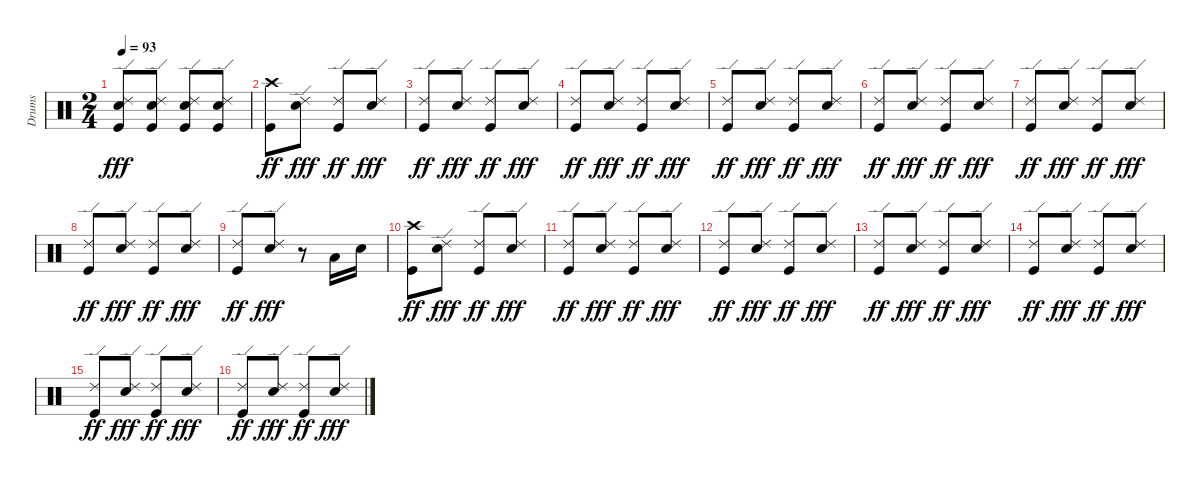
\track ("Drums" "Drums") {instrument percussion}
\staff {score}
\articulation defaults
\ts (2 4)
\tempo 93
\clef neutral
\ks c
("Ride (edge) 2" "Snare (hit) 2" "Kick (hit)").8{dy fff} ("Ride (edge) 2" "Snare (hit) 2" "Kick (hit)").8 ("Ride (edge) 2" "Snare (hit) 2" "Kick (hit)").8 ("Ride (edge) 2" "Snare (hit) 2" "Kick (hit)").8 |
("Crash high (hit)" "Kick (hit)").8{dy ff} ("Ride (edge) 2" "Snare (hit) 2").8{dy fff} ("Ride (edge) 2" "Kick (hit)").8{dy ff} ("Ride (edge) 2" "Snare (hit) 2").8{dy fff} |
("Ride (edge) 2" "Kick (hit)").8{dy ff} ("Ride (edge) 2" "Snare (hit) 2").8{dy fff} ("Ride (edge) 2" "Kick (hit)").8{dy ff} ("Ride (edge) 2" "Snare (hit) 2").8{dy fff} |
("Ride (edge) 2" "Kick (hit)").8{dy ff} ("Ride (edge) 2" "Snare (hit) 2").8{dy fff} ("Ride (edge) 2" "Kick (hit)").8{dy ff} ("Ride (edge) 2" "Snare (hit) 2").8{dy fff} |
("Ride (edge) 2" "Kick (hit)").8{dy ff} ("Ride (edge) 2" "Snare (hit) 2").8{dy fff} ("Ride (edge) 2" "Kick (hit)").8{dy ff} ("Ride (edge) 2" "Snare (hit) 2").8{dy fff} |
("Ride (edge) 2" "Kick (hit)").8{dy ff} ("Ride (edge) 2" "Snare (hit) 2").8{dy fff} ("Ride (edge) 2" "Kick (hit)").8{dy ff} ("Ride (edge) 2" "Snare (hit) 2").8{dy fff} |
("Ride (edge) 2" "Kick (hit)").8{dy ff} ("Ride (edge) 2" "Snare (hit) 2").8{dy fff} ("Ride (edge) 2" "Kick (hit)").8{dy ff} ("Ride (edge) 2" "Snare (hit) 2").8{dy fff} |
("Ride (edge) 2" "Kick (hit)").8{dy ff} ("Ride (edge) 2" "Snare (hit) 2").8{dy fff} ("Ride (edge) 2" "Kick (hit)").8{dy ff} ("Ride (edge) 2" "Snare (hit) 2").8{dy fff} |
("Ride (edge) 2" "Kick (hit)").8{dy ff} ("Ride (edge) 2" "Snare (hit) 2").8{dy fff} r.8 "Low Tom (hit)".16 "Snare (hit) 2".16 |
("Crash high (hit)" "Kick (hit)").8{dy ff} ("Ride (edge) 2" "Snare (hit) 2").8{dy fff} ("Ride (edge) 2" "Kick (hit)").8{dy ff} ("Ride (edge) 2" "Snare (hit) 2").8{dy fff} |
("Ride (edge) 2" "Kick (hit)").8{dy ff} ("Ride (edge) 2" "Snare (hit) 2").8{dy fff} ("Ride (edge) 2" "Kick (hit)").8{dy ff} ("Ride (edge) 2" "Snare (hit) 2").8{dy fff} |
("Ride (edge) 2" "Kick (hit)").8{dy ff} ("Ride (edge) 2" "Snare (hit) 2").8{dy fff} ("Ride (edge) 2" "Kick (hit)").8{dy ff} ("Ride (edge) 2" "Snare (hit) 2").8{dy fff} |
("Ride (edge) 2" "Kick (hit)").8{dy ff} ("Ride (edge) 2" "Snare (hit) 2").8{dy fff} ("Ride (edge) 2" "Kick (hit)").8{dy ff} ("Ride (edge) 2" "Snare (hit) 2").8{dy fff} |
("Ride (edge) 2" "Kick (hit)").8{dy ff} ("Ride (edge) 2" "Snare (hit) 2").8{dy fff} ("Ride (edge) 2" "Kick (hit)").8{dy ff} ("Ride (edge) 2" "Snare (hit) 2").8{dy fff} |
("Ride (edge) 2" "Kick (hit)").8{dy ff} ("Ride (edge) 2" "Snare (hit) 2").8{dy fff} ("Ride (edge) 2" "Kick (hit)").8{dy ff} ("Ride (edge) 2" "Snare (hit) 2").8{dy fff} |
("Ride (edge) 2" "Kick (hit)").8{dy ff} ("Ride (edge) 2" "Snare (hit) 2").8{dy fff} ("Ride (edge) 2" "Kick (hit)").8{dy ff} ("Ride (edge) 2" "Snare (hit) 2").8{dy fff}
